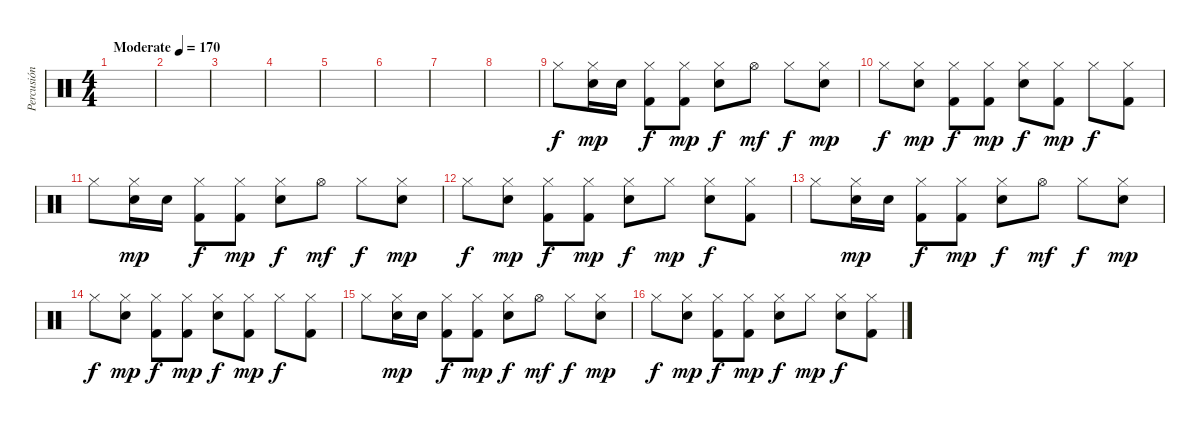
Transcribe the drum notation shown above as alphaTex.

\track ("Percusión" "Percusión") {instrument percussion}
\staff {score}
\articulation defaults
\ts (4 4)
\tempo (170 "Moderate")
\clef neutral
\ks c
|
|
|
|
|
|
|
|
"Hi-Hat (closed)".8{volume 6} ("Hi-Hat (closed)" "Electric Snare (hit)").16{dy mp} "Electric Snare (hit)".16 ("Hi-Hat (closed)" "Kick (hit) 2").8{dy f} ("Hi-Hat (closed)" "Kick (hit) 2").8{dy mp} ("Hi-Hat (closed)" "Electric Snare (hit)").8{dy f} "Hi-Hat (open)".8{dy mf} "Hi-Hat (closed)".8{dy f} ("Hi-Hat (closed)" "Electric Snare (hit)").8{dy mp} |
"Hi-Hat (closed)".8{dy f} ("Hi-Hat (closed)" "Electric Snare (hit)").8{dy mp} ("Hi-Hat (closed)" "Kick (hit) 2").8{dy f} ("Hi-Hat (closed)" "Kick (hit) 2").8{dy mp} ("Hi-Hat (closed)" "Electric Snare (hit)").8{dy f} ("Hi-Hat (closed)" "Kick (hit) 2").8{dy mp} "Hi-Hat (closed)".8{dy f} ("Hi-Hat (closed)" "Kick (hit) 2").8 |
"Hi-Hat (closed)".8 ("Hi-Hat (closed)" "Electric Snare (hit)").16{dy mp} "Electric Snare (hit)".16 ("Hi-Hat (closed)" "Kick (hit) 2").8{dy f} ("Hi-Hat (closed)" "Kick (hit) 2").8{dy mp} ("Hi-Hat (closed)" "Electric Snare (hit)").8{dy f} "Hi-Hat (open)".8{dy mf} "Hi-Hat (closed)".8{dy f} ("Hi-Hat (closed)" "Electric Snare (hit)").8{dy mp} |
"Hi-Hat (closed)".8{dy f} ("Hi-Hat (closed)" "Electric Snare (hit)").8{dy mp} ("Hi-Hat (closed)" "Kick (hit) 2").8{dy f} ("Hi-Hat (closed)" "Kick (hit) 2").8{dy mp} ("Hi-Hat (closed)" "Electric Snare (hit)").8{dy f} "Hi-Hat (closed)".8{dy mp} ("Hi-Hat (closed)" "Electric Snare (hit)").8{dy f} ("Hi-Hat (closed)" "Kick (hit) 2").8 |
"Hi-Hat (closed)".8{volume 8} ("Hi-Hat (closed)" "Electric Snare (hit)").16{dy mp} "Electric Snare (hit)".16 ("Hi-Hat (closed)" "Kick (hit) 2").8{dy f} ("Hi-Hat (closed)" "Kick (hit) 2").8{dy mp} ("Hi-Hat (closed)" "Electric Snare (hit)").8{dy f} "Hi-Hat (open)".8{dy mf} "Hi-Hat (closed)".8{dy f} ("Hi-Hat (closed)" "Electric Snare (hit)").8{dy mp} |
"Hi-Hat (closed)".8{dy f} ("Hi-Hat (closed)" "Electric Snare (hit)").8{dy mp} ("Hi-Hat (closed)" "Kick (hit) 2").8{dy f} ("Hi-Hat (closed)" "Kick (hit) 2").8{dy mp} ("Hi-Hat (closed)" "Electric Snare (hit)").8{dy f} ("Hi-Hat (closed)" "Kick (hit) 2").8{dy mp} "Hi-Hat (closed)".8{dy f} ("Hi-Hat (closed)" "Kick (hit) 2").8 |
"Hi-Hat (closed)".8 ("Hi-Hat (closed)" "Electric Snare (hit)").16{dy mp} "Electric Snare (hit)".16 ("Hi-Hat (closed)" "Kick (hit) 2").8{dy f} ("Hi-Hat (closed)" "Kick (hit) 2").8{dy mp} ("Hi-Hat (closed)" "Electric Snare (hit)").8{dy f} "Hi-Hat (open)".8{dy mf} "Hi-Hat (closed)".8{dy f} ("Hi-Hat (closed)" "Electric Snare (hit)").8{dy mp} |
"Hi-Hat (closed)".8{dy f} ("Hi-Hat (closed)" "Electric Snare (hit)").8{dy mp} ("Hi-Hat (closed)" "Kick (hit) 2").8{dy f} ("Hi-Hat (closed)" "Kick (hit) 2").8{dy mp} ("Hi-Hat (closed)" "Electric Snare (hit)").8{dy f volume 12} "Hi-Hat (closed)".8{dy mp} ("Hi-Hat (closed)" "Electric Snare (hit)").8{dy f} ("Hi-Hat (closed)" "Kick (hit) 2").8
